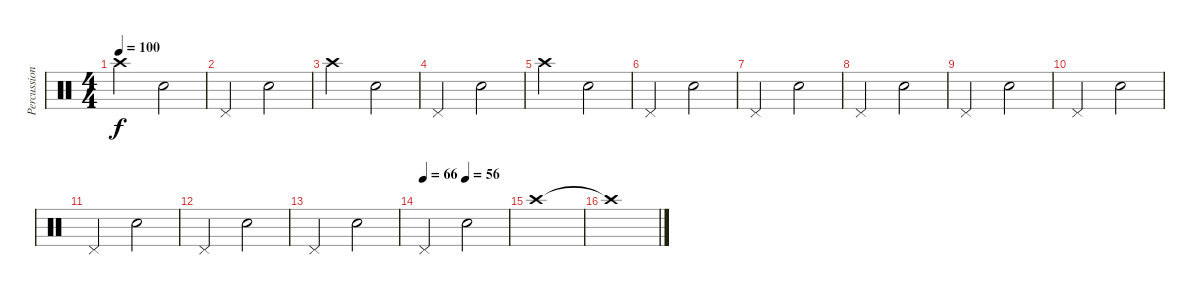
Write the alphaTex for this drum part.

\track ("Percussioni" "Percussion") {instrument percussion}
\staff {score}
\articulation defaults
\ts (4 4)
\tempo 100
\clef neutral
\ks c "Crash high (hit)".2{dy f} "Snare (hit) 2".2
|
"Pedal Hi-Hat (hit)".2 "Snare (hit) 2".2 |
"Crash high (hit)".2 "Snare (hit) 2".2 |
"Pedal Hi-Hat (hit)".2 "Snare (hit) 2".2 |
"Crash high (hit)".2 "Snare (hit) 2".2 |
"Pedal Hi-Hat (hit)".2 "Snare (hit) 2".2 |
"Pedal Hi-Hat (hit)".2 "Snare (hit) 2".2 |
"Pedal Hi-Hat (hit)".2 "Snare (hit) 2".2 |
"Pedal Hi-Hat (hit)".2 "Snare (hit) 2".2 |
"Pedal Hi-Hat (hit)".2 "Snare (hit) 2".2 |
"Pedal Hi-Hat (hit)".2 "Snare (hit) 2".2 |
"Pedal Hi-Hat (hit)".2 "Snare (hit) 2".2 |
"Pedal Hi-Hat (hit)".2 "Snare (hit) 2".2 |
\tempo 66
\tempo (56 0.5)
"Pedal Hi-Hat (hit)".2 "Snare (hit) 2".2 |
"Crash high (hit)".1 |
"Crash high (hit)"{t}.1
